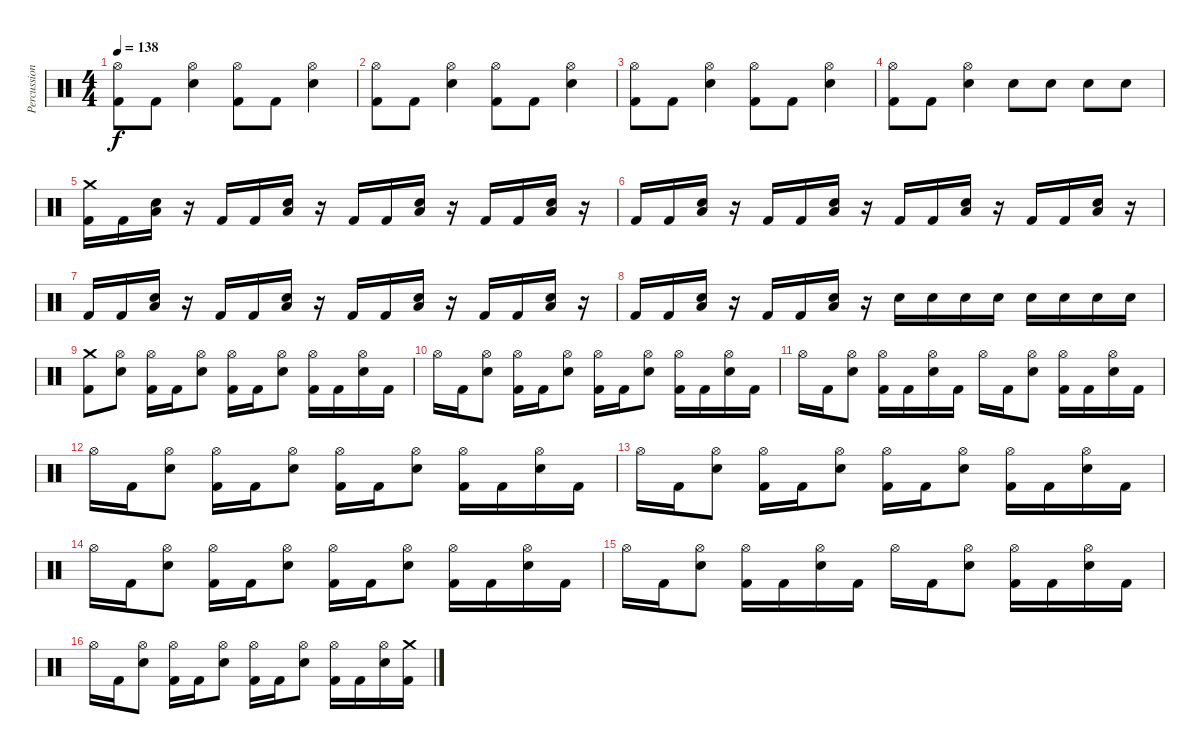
\track ("Percussion" "Percussion") {instrument percussion}
\staff {score}
\articulation defaults
\ts (4 4)
\tempo 138
\clef neutral
\ks c
("Hi-Hat (open)" "Kick (hit) 2").8{dy f} "Kick (hit) 2".8 ("Hi-Hat (open)" "Snare (hit) 2").4 ("Hi-Hat (open)" "Kick (hit) 2").8 "Kick (hit) 2".8 ("Hi-Hat (open)" "Snare (hit) 2").4 |
("Hi-Hat (open)" "Kick (hit) 2").8 "Kick (hit) 2".8 ("Hi-Hat (open)" "Snare (hit) 2").4 ("Hi-Hat (open)" "Kick (hit) 2").8 "Kick (hit) 2".8 ("Hi-Hat (open)" "Snare (hit) 2").4 |
("Hi-Hat (open)" "Kick (hit) 2").8 "Kick (hit) 2".8 ("Hi-Hat (open)" "Snare (hit) 2").4 ("Hi-Hat (open)" "Kick (hit) 2").8 "Kick (hit) 2".8 ("Hi-Hat (open)" "Snare (hit) 2").4 |
("Hi-Hat (open)" "Kick (hit) 2").8 "Kick (hit) 2".8 ("Hi-Hat (open)" "Snare (hit) 2").4 "Snare (hit) 2".8 "Snare (hit) 2".8 "Snare (hit) 2".8 "Snare (hit) 2".8 |
("Crash medium (hit)" "Kick (hit) 2").16 "Kick (hit) 2".16 ("Snare (hit) 2" "Low Floor Tom (hit)").16 r.16 "Kick (hit) 2".16 "Kick (hit) 2".16 ("Snare (hit) 2" "Low Floor Tom (hit)").16 r.16 "Kick (hit) 2".16 "Kick (hit) 2".16 ("Snare (hit) 2" "Low Floor Tom (hit)").16 r.16 "Kick (hit) 2".16 "Kick (hit) 2".16 ("Snare (hit) 2" "Low Floor Tom (hit)").16 r.16 |
"Kick (hit) 2".16 "Kick (hit) 2".16 ("Snare (hit) 2" "Low Floor Tom (hit)").16 r.16 "Kick (hit) 2".16 "Kick (hit) 2".16 ("Snare (hit) 2" "Low Floor Tom (hit)").16 r.16 "Kick (hit) 2".16 "Kick (hit) 2".16 ("Snare (hit) 2" "Low Floor Tom (hit)").16 r.16 "Kick (hit) 2".16 "Kick (hit) 2".16 ("Snare (hit) 2" "Low Floor Tom (hit)").16 r.16 |
"Kick (hit) 2".16 "Kick (hit) 2".16 ("Snare (hit) 2" "Low Floor Tom (hit)").16 r.16 "Kick (hit) 2".16 "Kick (hit) 2".16 ("Snare (hit) 2" "Low Floor Tom (hit)").16 r.16 "Kick (hit) 2".16 "Kick (hit) 2".16 ("Snare (hit) 2" "Low Floor Tom (hit)").16 r.16 "Kick (hit) 2".16 "Kick (hit) 2".16 ("Snare (hit) 2" "Low Floor Tom (hit)").16 r.16 |
"Kick (hit) 2".16 "Kick (hit) 2".16 ("Snare (hit) 2" "Low Floor Tom (hit)").16 r.16 "Kick (hit) 2".16 "Kick (hit) 2".16 ("Snare (hit) 2" "Low Floor Tom (hit)").16 r.16 "Snare (hit) 2".16 "Snare (hit) 2".16 "Snare (hit) 2".16 "Snare (hit) 2".16 "Snare (hit) 2".16 "Snare (hit) 2".16 "Snare (hit) 2".16 "Snare (hit) 2".16 |
("Crash medium (hit)" "Kick (hit) 2").8 ("Hi-Hat (open)" "Snare (hit) 2").8 ("Hi-Hat (open)" "Kick (hit) 2").16 "Kick (hit) 2".16 ("Hi-Hat (open)" "Snare (hit) 2").8 ("Hi-Hat (open)" "Kick (hit) 2").16 "Kick (hit) 2".16 ("Hi-Hat (open)" "Snare (hit) 2").8 ("Hi-Hat (open)" "Kick (hit) 2").16 "Kick (hit) 2".16 ("Hi-Hat (open)" "Snare (hit) 2").16 "Kick (hit) 2".16 |
"Hi-Hat (open)".16 "Kick (hit) 2".16 ("Hi-Hat (open)" "Snare (hit) 2").8 ("Hi-Hat (open)" "Kick (hit) 2").16 "Kick (hit) 2".16 ("Hi-Hat (open)" "Snare (hit) 2").8 ("Hi-Hat (open)" "Kick (hit) 2").16 "Kick (hit) 2".16 ("Hi-Hat (open)" "Snare (hit) 2").8 ("Hi-Hat (open)" "Kick (hit) 2").16 "Kick (hit) 2".16 ("Hi-Hat (open)" "Snare (hit) 2").16 "Kick (hit) 2".16 |
"Hi-Hat (open)".16 "Kick (hit) 2".16 ("Hi-Hat (open)" "Snare (hit) 2").8 ("Hi-Hat (open)" "Kick (hit) 2").16 "Kick (hit) 2".16 ("Hi-Hat (open)" "Snare (hit) 2").16 "Kick (hit) 2".16 "Hi-Hat (open)".16 "Kick (hit) 2".16 ("Hi-Hat (open)" "Snare (hit) 2").8 ("Hi-Hat (open)" "Kick (hit) 2").16 "Kick (hit) 2".16 ("Hi-Hat (open)" "Snare (hit) 2").16 "Kick (hit) 2".16 |
"Hi-Hat (open)".16 "Kick (hit) 2".16 ("Hi-Hat (open)" "Snare (hit) 2").8 ("Hi-Hat (open)" "Kick (hit) 2").16 "Kick (hit) 2".16 ("Hi-Hat (open)" "Snare (hit) 2").8 ("Hi-Hat (open)" "Kick (hit) 2").16 "Kick (hit) 2".16 ("Hi-Hat (open)" "Snare (hit) 2").8 ("Hi-Hat (open)" "Kick (hit) 2").16 "Kick (hit) 2".16 ("Hi-Hat (open)" "Snare (hit) 2").16 "Kick (hit) 2".16 |
"Hi-Hat (open)".16 "Kick (hit) 2".16 ("Hi-Hat (open)" "Snare (hit) 2").8 ("Hi-Hat (open)" "Kick (hit) 2").16 "Kick (hit) 2".16 ("Hi-Hat (open)" "Snare (hit) 2").8 ("Hi-Hat (open)" "Kick (hit) 2").16 "Kick (hit) 2".16 ("Hi-Hat (open)" "Snare (hit) 2").8 ("Hi-Hat (open)" "Kick (hit) 2").16 "Kick (hit) 2".16 ("Hi-Hat (open)" "Snare (hit) 2").16 "Kick (hit) 2".16 |
"Hi-Hat (open)".16 "Kick (hit) 2".16 ("Hi-Hat (open)" "Snare (hit) 2").8 ("Hi-Hat (open)" "Kick (hit) 2").16 "Kick (hit) 2".16 ("Hi-Hat (open)" "Snare (hit) 2").8 ("Hi-Hat (open)" "Kick (hit) 2").16 "Kick (hit) 2".16 ("Hi-Hat (open)" "Snare (hit) 2").8 ("Hi-Hat (open)" "Kick (hit) 2").16 "Kick (hit) 2".16 ("Hi-Hat (open)" "Snare (hit) 2").16 "Kick (hit) 2".16 |
"Hi-Hat (open)".16 "Kick (hit) 2".16 ("Hi-Hat (open)" "Snare (hit) 2").8 ("Hi-Hat (open)" "Kick (hit) 2").16 "Kick (hit) 2".16 ("Hi-Hat (open)" "Snare (hit) 2").16 "Kick (hit) 2".16 "Hi-Hat (open)".16 "Kick (hit) 2".16 ("Hi-Hat (open)" "Snare (hit) 2").8 ("Hi-Hat (open)" "Kick (hit) 2").16 "Kick (hit) 2".16 ("Hi-Hat (open)" "Snare (hit) 2").16 "Kick (hit) 2".16 |
"Hi-Hat (open)".16 "Kick (hit) 2".16 ("Hi-Hat (open)" "Snare (hit) 2").8 ("Hi-Hat (open)" "Kick (hit) 2").16 "Kick (hit) 2".16 ("Hi-Hat (open)" "Snare (hit) 2").8 ("Hi-Hat (open)" "Kick (hit) 2").16 "Kick (hit) 2".16 ("Hi-Hat (open)" "Snare (hit) 2").8 ("Hi-Hat (open)" "Kick (hit) 2").16 "Kick (hit) 2".16 ("Hi-Hat (open)" "Snare (hit) 2").16 ("Crash medium (hit)" "Kick (hit) 2").16
